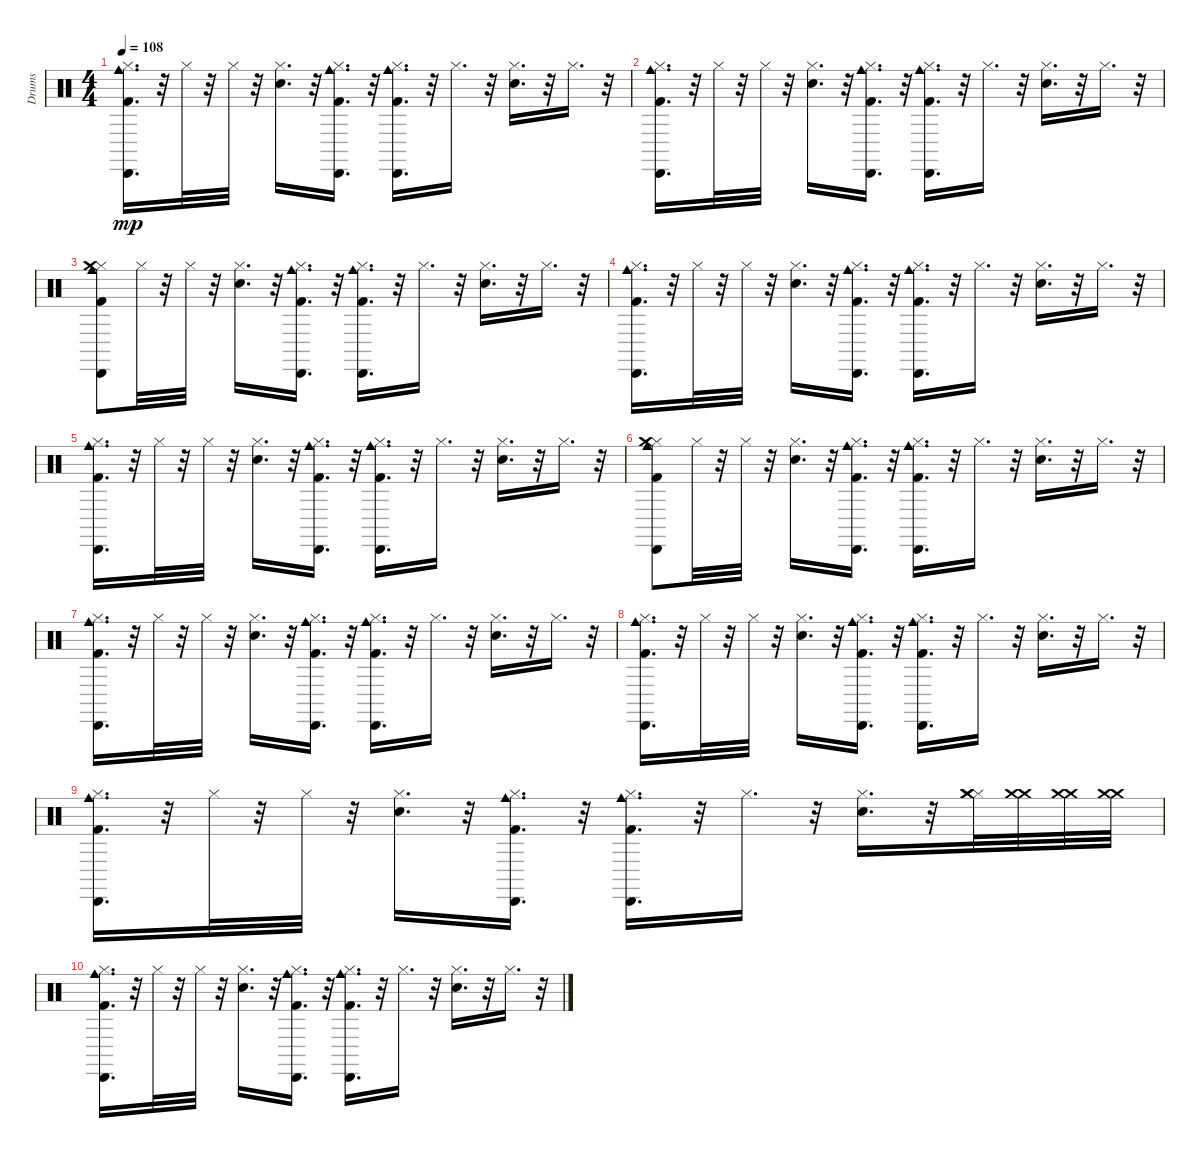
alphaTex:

\track ("Drums" "Drums") {instrument percussion}
\staff {score}
\articulation defaults
\ts (4 4)
\tempo 108
\clef neutral
\ks c
("Kick (hit) 2" "Hi-Hat (closed)" "Cabasa (hit)" "Cowbell medium (hit)").16{d dy mp} r.32 "Hi-Hat (closed)".32 r.32 "Hi-Hat (closed)".32 r.32 ("Snare (hit) 2" "Hi-Hat (closed)").16{d} r.32 ("Kick (hit) 2" "Hi-Hat (closed)" "Cabasa (hit)" "Cowbell medium (hit)").16{d} r.32 ("Kick (hit) 2" "Hi-Hat (closed)" "Cabasa (hit)" "Cowbell medium (hit)").16{d} r.32 "Hi-Hat (closed)".16{d} r.32 ("Snare (hit) 2" "Hi-Hat (closed)").16{d} r.32 "Hi-Hat (closed)".16{d} r.32 |
("Kick (hit) 2" "Hi-Hat (closed)" "Cabasa (hit)" "Cowbell medium (hit)").16{d} r.32 "Hi-Hat (closed)".32 r.32 "Hi-Hat (closed)".32 r.32 ("Snare (hit) 2" "Hi-Hat (closed)").16{d} r.32 ("Kick (hit) 2" "Hi-Hat (closed)" "Cabasa (hit)" "Cowbell medium (hit)").16{d} r.32 ("Kick (hit) 2" "Hi-Hat (closed)" "Cabasa (hit)" "Cowbell medium (hit)").16{d} r.32 "Hi-Hat (closed)".16{d} r.32 ("Snare (hit) 2" "Hi-Hat (closed)").16{d} r.32 "Hi-Hat (closed)".16{d} r.32 |
("Kick (hit) 2" "Hi-Hat (closed)" "Cabasa (hit)" "Cowbell medium (hit)" "Crash medium (hit)").8 "Hi-Hat (closed)".32 r.32 "Hi-Hat (closed)".32 r.32 ("Snare (hit) 2" "Hi-Hat (closed)").16{d} r.32 ("Kick (hit) 2" "Hi-Hat (closed)" "Cabasa (hit)" "Cowbell medium (hit)").16{d} r.32 ("Kick (hit) 2" "Hi-Hat (closed)" "Cabasa (hit)" "Cowbell medium (hit)").16{d} r.32 "Hi-Hat (closed)".16{d} r.32 ("Snare (hit) 2" "Hi-Hat (closed)").16{d} r.32 "Hi-Hat (closed)".16{d} r.32 |
("Kick (hit) 2" "Hi-Hat (closed)" "Cabasa (hit)" "Cowbell medium (hit)").16{d} r.32 "Hi-Hat (closed)".32 r.32 "Hi-Hat (closed)".32 r.32 ("Snare (hit) 2" "Hi-Hat (closed)").16{d} r.32 ("Kick (hit) 2" "Hi-Hat (closed)" "Cabasa (hit)" "Cowbell medium (hit)").16{d} r.32 ("Kick (hit) 2" "Hi-Hat (closed)" "Cabasa (hit)" "Cowbell medium (hit)").16{d} r.32 "Hi-Hat (closed)".16{d} r.32 ("Snare (hit) 2" "Hi-Hat (closed)").16{d} r.32 "Hi-Hat (closed)".16{d} r.32 |
("Kick (hit) 2" "Hi-Hat (closed)" "Cabasa (hit)" "Cowbell medium (hit)").16{d volume 11} r.32 "Hi-Hat (closed)".32 r.32 "Hi-Hat (closed)".32 r.32 ("Snare (hit) 2" "Hi-Hat (closed)").16{d} r.32 ("Kick (hit) 2" "Hi-Hat (closed)" "Cabasa (hit)" "Cowbell medium (hit)").16{d} r.32 ("Kick (hit) 2" "Hi-Hat (closed)" "Cabasa (hit)" "Cowbell medium (hit)").16{d} r.32 "Hi-Hat (closed)".16{d} r.32 ("Snare (hit) 2" "Hi-Hat (closed)").16{d} r.32 "Hi-Hat (closed)".16{d} r.32 |
("Kick (hit) 2" "Hi-Hat (closed)" "Cabasa (hit)" "Cowbell medium (hit)" "Crash medium (hit)").8{volume 9} "Hi-Hat (closed)".32 r.32 "Hi-Hat (closed)".32 r.32 ("Snare (hit) 2" "Hi-Hat (closed)").16{d} r.32 ("Kick (hit) 2" "Hi-Hat (closed)" "Cabasa (hit)" "Cowbell medium (hit)").16{d} r.32 ("Kick (hit) 2" "Hi-Hat (closed)" "Cabasa (hit)" "Cowbell medium (hit)").16{d} r.32 "Hi-Hat (closed)".16{d} r.32 ("Snare (hit) 2" "Hi-Hat (closed)").16{d} r.32 "Hi-Hat (closed)".16{d} r.32 |
("Kick (hit) 2" "Hi-Hat (closed)" "Cabasa (hit)" "Cowbell medium (hit)").16{d volume 6} r.32 "Hi-Hat (closed)".32 r.32 "Hi-Hat (closed)".32 r.32 ("Snare (hit) 2" "Hi-Hat (closed)").16{d} r.32 ("Kick (hit) 2" "Hi-Hat (closed)" "Cabasa (hit)" "Cowbell medium (hit)").16{d} r.32 ("Kick (hit) 2" "Hi-Hat (closed)" "Cabasa (hit)" "Cowbell medium (hit)").16{d} r.32 "Hi-Hat (closed)".16{d} r.32 ("Snare (hit) 2" "Hi-Hat (closed)").16{d} r.32 "Hi-Hat (closed)".16{d} r.32 |
("Kick (hit) 2" "Hi-Hat (closed)" "Cabasa (hit)" "Cowbell medium (hit)").16{d volume 4} r.32 "Hi-Hat (closed)".32 r.32 "Hi-Hat (closed)".32 r.32 ("Snare (hit) 2" "Hi-Hat (closed)").16{d} r.32 ("Kick (hit) 2" "Hi-Hat (closed)" "Cabasa (hit)" "Cowbell medium (hit)").16{d} r.32 ("Kick (hit) 2" "Hi-Hat (closed)" "Cabasa (hit)" "Cowbell medium (hit)").16{d} r.32 "Hi-Hat (closed)".16{d} r.32 ("Snare (hit) 2" "Hi-Hat (closed)").16{d} r.32 "Hi-Hat (closed)".16{d} r.32 |
("Kick (hit) 2" "Hi-Hat (closed)" "Cabasa (hit)" "Cowbell medium (hit)").16{d volume 2} r.32 "Hi-Hat (closed)".32 r.32 "Hi-Hat (closed)".32 r.32 ("Snare (hit) 2" "Hi-Hat (closed)").16{d} r.32 ("Kick (hit) 2" "Hi-Hat (closed)" "Cabasa (hit)" "Cowbell medium (hit)").16{d} r.32 ("Kick (hit) 2" "Hi-Hat (closed)" "Cabasa (hit)" "Cowbell medium (hit)").16{d} r.32 "Hi-Hat (closed)".16{d} r.32 ("Snare (hit) 2" "Hi-Hat (closed)").16{d} r.32 ("Hi-Hat (closed)" "Crash medium (hit)" "Crash medium (hit)").32 ("Crash medium (hit)" "Crash medium (hit)").32 ("Crash medium (hit)" "Crash medium (hit)").32 ("Crash medium (hit)" "Crash medium (hit)").32 |
("Kick (hit) 2" "Hi-Hat (closed)" "Cabasa (hit)" "Cowbell medium (hit)").16{d volume 1} r.32 "Hi-Hat (closed)".32 r.32 "Hi-Hat (closed)".32 r.32 ("Snare (hit) 2" "Hi-Hat (closed)").16{d} r.32 ("Kick (hit) 2" "Hi-Hat (closed)" "Cabasa (hit)" "Cowbell medium (hit)").16{d} r.32 ("Kick (hit) 2" "Hi-Hat (closed)" "Cabasa (hit)" "Cowbell medium (hit)").16{d volume 1} r.32 "Hi-Hat (closed)".16{d} r.32 ("Snare (hit) 2" "Hi-Hat (closed)").16{d volume 0} r.32 "Hi-Hat (closed)".16{d} r.32
